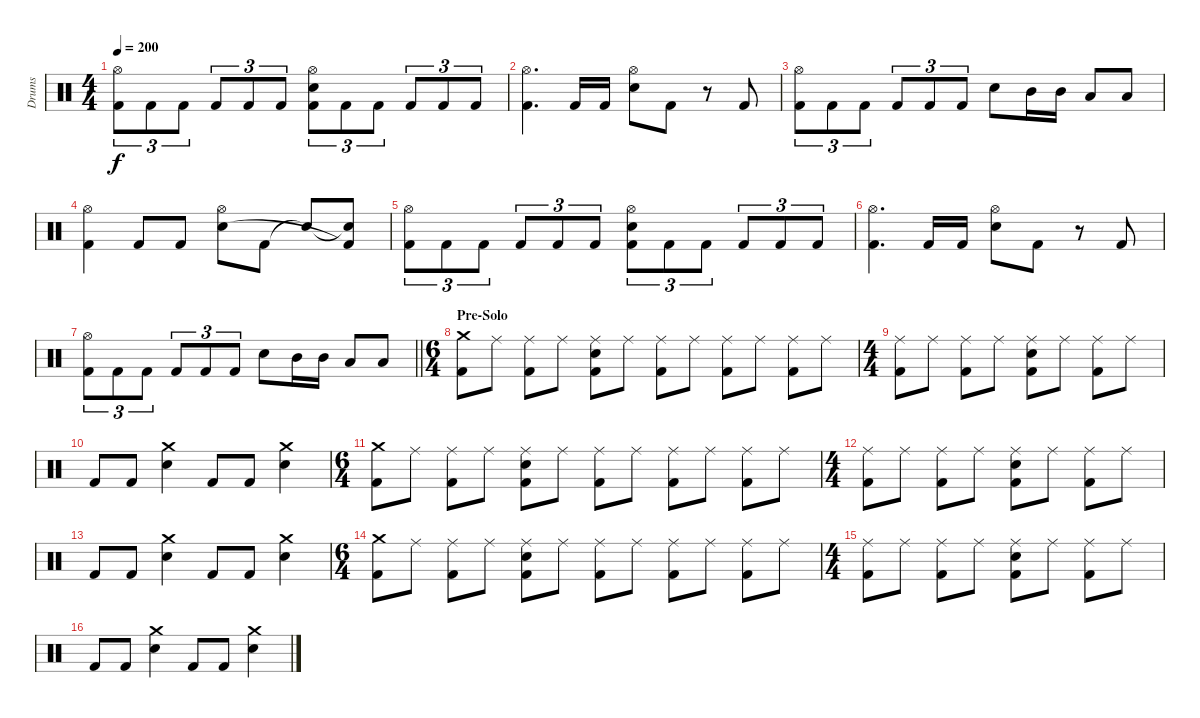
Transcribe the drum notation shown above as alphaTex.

\track ("Drums" "Drums") {instrument percussion}
\staff {score}
\articulation defaults
\ts (4 4)
\tempo 200
\clef neutral
\ks c
("Hi-Hat (open)" "Kick (hit) 2").8{tu (3 2) dy f} "Kick (hit) 2".8{tu (3 2)} "Kick (hit) 2".8{tu (3 2)} "Kick (hit) 2".8{tu (3 2)} "Kick (hit) 2".8{tu (3 2)} "Kick (hit) 2".8{tu (3 2)} ("Hi-Hat (open)" "Electric Snare (hit)" "Kick (hit) 2").8{tu (3 2)} "Kick (hit) 2".8{tu (3 2)} "Kick (hit) 2".8{tu (3 2)} "Kick (hit) 2".8{tu (3 2)} "Kick (hit) 2".8{tu (3 2)} "Kick (hit) 2".8{tu (3 2)} |
("Hi-Hat (open)" "Kick (hit) 2").4{d} "Kick (hit) 2".16 "Kick (hit) 2".16 ("Hi-Hat (open)" "Electric Snare (hit)").8 "Kick (hit) 2".8 r.8 "Kick (hit) 2".8 |
("Hi-Hat (open)" "Kick (hit) 2").8{tu (3 2)} "Kick (hit) 2".8{tu (3 2)} "Kick (hit) 2".8{tu (3 2)} "Kick (hit) 2".8{tu (3 2)} "Kick (hit) 2".8{tu (3 2)} "Kick (hit) 2".8{tu (3 2)} "Electric Snare (hit)".8 "Mid Tom (hit)".16 "Mid Tom (hit)".16 "Low Tom (hit)".8 "Low Tom (hit)".8 |
("Hi-Hat (open)" "Kick (hit) 2").4 "Kick (hit) 2".8 "Kick (hit) 2".8 ("Hi-Hat (open)" "Electric Snare (hit)").8 "Kick (hit) 2".8 "Snare (hit)"{t}.8 ("Snare (hit)"{t} "Kick (hit) 2"{t}).8 |
("Hi-Hat (open)" "Kick (hit) 2").8{tu (3 2)} "Kick (hit) 2".8{tu (3 2)} "Kick (hit) 2".8{tu (3 2)} "Kick (hit) 2".8{tu (3 2)} "Kick (hit) 2".8{tu (3 2)} "Kick (hit) 2".8{tu (3 2)} ("Hi-Hat (open)" "Electric Snare (hit)" "Kick (hit) 2").8{tu (3 2)} "Kick (hit) 2".8{tu (3 2)} "Kick (hit) 2".8{tu (3 2)} "Kick (hit) 2".8{tu (3 2)} "Kick (hit) 2".8{tu (3 2)} "Kick (hit) 2".8{tu (3 2)} |
("Hi-Hat (open)" "Kick (hit) 2").4{d} "Kick (hit) 2".16 "Kick (hit) 2".16 ("Hi-Hat (open)" "Electric Snare (hit)").8 "Kick (hit) 2".8 r.8 "Kick (hit) 2".8 |
\barLineRight lightlight
("Hi-Hat (open)" "Kick (hit) 2").8{tu (3 2)} "Kick (hit) 2".8{tu (3 2)} "Kick (hit) 2".8{tu (3 2)} "Kick (hit) 2".8{tu (3 2)} "Kick (hit) 2".8{tu (3 2)} "Kick (hit) 2".8{tu (3 2)} "Electric Snare (hit)".8 "Mid Tom (hit)".16 "Mid Tom (hit)".16 "Low Tom (hit)".8 "Low Tom (hit)".8 |
\ts (6 4)
\section ("" "Pre-Solo")
("Crash medium (hit)" "Kick (hit) 2").8 "Ride (middle)".8 ("Ride (middle)" "Kick (hit) 2").8 "Ride (middle)".8 ("Ride (middle)" "Electric Snare (hit)" "Kick (hit) 2").8 "Ride (middle)".8 ("Ride (middle)" "Kick (hit) 2").8 "Ride (middle)".8 ("Ride (middle)" "Kick (hit) 2").8 "Ride (middle)".8 ("Ride (middle)" "Kick (hit) 2").8 "Ride (middle)".8 |
\ts (4 4)
("Ride (middle)" "Kick (hit) 2").8 "Ride (middle)".8 ("Ride (middle)" "Kick (hit) 2").8 "Ride (middle)".8 ("Ride (middle)" "Electric Snare (hit)" "Kick (hit) 2").8 "Ride (middle)".8 ("Ride (middle)" "Kick (hit) 2").8 "Ride (middle)".8 |
"Kick (hit) 2".8 "Kick (hit) 2".8 ("Crash medium (hit)" "Electric Snare (hit)").4 "Kick (hit) 2".8 "Kick (hit) 2".8 ("Crash medium (hit)" "Electric Snare (hit)").4 |
\ts (6 4)
("Crash medium (hit)" "Kick (hit) 2").8 "Ride (middle)".8 ("Ride (middle)" "Kick (hit) 2").8 "Ride (middle)".8 ("Ride (middle)" "Electric Snare (hit)" "Kick (hit) 2").8 "Ride (middle)".8 ("Ride (middle)" "Kick (hit) 2").8 "Ride (middle)".8 ("Ride (middle)" "Kick (hit) 2").8 "Ride (middle)".8 ("Ride (middle)" "Kick (hit) 2").8 "Ride (middle)".8 |
\ts (4 4)
("Ride (middle)" "Kick (hit) 2").8 "Ride (middle)".8 ("Ride (middle)" "Kick (hit) 2").8 "Ride (middle)".8 ("Ride (middle)" "Electric Snare (hit)" "Kick (hit) 2").8 "Ride (middle)".8 ("Ride (middle)" "Kick (hit) 2").8 "Ride (middle)".8 |
"Kick (hit) 2".8 "Kick (hit) 2".8 ("Crash medium (hit)" "Electric Snare (hit)").4 "Kick (hit) 2".8 "Kick (hit) 2".8 ("Crash medium (hit)" "Electric Snare (hit)").4 |
\ts (6 4)
("Crash medium (hit)" "Kick (hit) 2").8 "Ride (middle)".8 ("Ride (middle)" "Kick (hit) 2").8 "Ride (middle)".8 ("Ride (middle)" "Electric Snare (hit)" "Kick (hit) 2").8 "Ride (middle)".8 ("Ride (middle)" "Kick (hit) 2").8 "Ride (middle)".8 ("Ride (middle)" "Kick (hit) 2").8 "Ride (middle)".8 ("Ride (middle)" "Kick (hit) 2").8 "Ride (middle)".8 |
\ts (4 4)
("Ride (middle)" "Kick (hit) 2").8 "Ride (middle)".8 ("Ride (middle)" "Kick (hit) 2").8 "Ride (middle)".8 ("Ride (middle)" "Electric Snare (hit)" "Kick (hit) 2").8 "Ride (middle)".8 ("Ride (middle)" "Kick (hit) 2").8 "Ride (middle)".8 |
"Kick (hit) 2".8 "Kick (hit) 2".8 ("Crash medium (hit)" "Electric Snare (hit)").4 "Kick (hit) 2".8 "Kick (hit) 2".8 ("Crash medium (hit)" "Electric Snare (hit)").4
